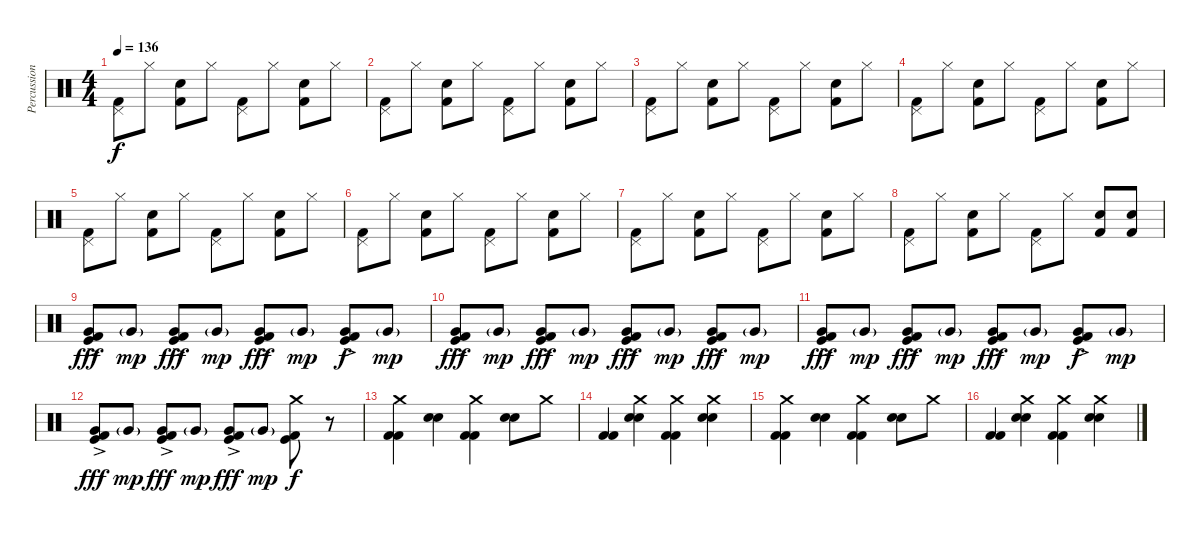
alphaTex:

\track ("Percussion" "Percussion") {instrument percussion}
\staff {score}
\articulation defaults
\ts (4 4)
\tempo 136
\clef neutral
\ks c
("Pedal Hi-Hat (hit)" "Kick (hit) 2").8{dy f} "Hi-Hat (closed)".8 ("Snare (hit) 2" "Kick (hit) 2").8 "Hi-Hat (closed)".8 ("Pedal Hi-Hat (hit)" "Kick (hit) 2").8 "Hi-Hat (closed)".8 ("Snare (hit) 2" "Kick (hit) 2").8 "Hi-Hat (closed)".8 |
("Pedal Hi-Hat (hit)" "Kick (hit) 2").8 "Hi-Hat (closed)".8 ("Snare (hit) 2" "Kick (hit) 2").8 "Hi-Hat (closed)".8 ("Pedal Hi-Hat (hit)" "Kick (hit) 2").8 "Hi-Hat (closed)".8 ("Snare (hit) 2" "Kick (hit) 2").8 "Hi-Hat (closed)".8 |
("Pedal Hi-Hat (hit)" "Kick (hit) 2").8 "Hi-Hat (closed)".8 ("Snare (hit) 2" "Kick (hit) 2").8 "Hi-Hat (closed)".8 ("Pedal Hi-Hat (hit)" "Kick (hit) 2").8 "Hi-Hat (closed)".8 ("Snare (hit) 2" "Kick (hit) 2").8 "Hi-Hat (closed)".8 |
("Pedal Hi-Hat (hit)" "Kick (hit) 2").8 "Hi-Hat (closed)".8 ("Snare (hit) 2" "Kick (hit) 2").8 "Hi-Hat (closed)".8 ("Pedal Hi-Hat (hit)" "Kick (hit) 2").8 "Hi-Hat (closed)".8 ("Snare (hit) 2" "Kick (hit) 2").8 "Hi-Hat (closed)".8 |
("Pedal Hi-Hat (hit)" "Kick (hit) 2").8 "Hi-Hat (closed)".8 ("Snare (hit) 2" "Kick (hit) 2").8 "Hi-Hat (closed)".8 ("Pedal Hi-Hat (hit)" "Kick (hit) 2").8 "Hi-Hat (closed)".8 ("Snare (hit) 2" "Kick (hit) 2").8 "Hi-Hat (closed)".8 |
("Pedal Hi-Hat (hit)" "Kick (hit) 2").8 "Hi-Hat (closed)".8 ("Snare (hit) 2" "Kick (hit) 2").8 "Hi-Hat (closed)".8 ("Pedal Hi-Hat (hit)" "Kick (hit) 2").8 "Hi-Hat (closed)".8 ("Snare (hit) 2" "Kick (hit) 2").8 "Hi-Hat (closed)".8 |
("Pedal Hi-Hat (hit)" "Kick (hit) 2").8 "Hi-Hat (closed)".8 ("Snare (hit) 2" "Kick (hit) 2").8 "Hi-Hat (closed)".8 ("Pedal Hi-Hat (hit)" "Kick (hit) 2").8 "Hi-Hat (closed)".8 ("Snare (hit) 2" "Kick (hit) 2").8 "Hi-Hat (closed)".8 |
("Pedal Hi-Hat (hit)" "Kick (hit) 2").8 "Hi-Hat (closed)".8 ("Snare (hit) 2" "Kick (hit) 2").8 "Hi-Hat (closed)".8 ("Pedal Hi-Hat (hit)" "Kick (hit) 2").8 "Hi-Hat (closed)".8 ("Snare (hit) 2" "Kick (hit) 2").8 ("Snare (hit) 2" "Kick (hit) 2").8 |
("Very Low Tom (hit)"{ac} "Kick (hit)" "Kick (hit) 2").8{dy fff} "Very Low Tom (hit)"{g}.8{dy mp} ("Very Low Tom (hit)"{ac} "Kick (hit)" "Kick (hit) 2").8{dy fff} "Very Low Tom (hit)"{g}.8{dy mp} ("Very Low Tom (hit)"{ac} "Kick (hit)" "Kick (hit) 2").8{dy fff} "Very Low Tom (hit)"{g}.8{dy mp} ("Very Low Tom (hit)"{ac} "Kick (hit)" "Kick (hit) 2").8{dy f} "Very Low Tom (hit)"{g}.8{dy mp} |
("Very Low Tom (hit)"{ac} "Kick (hit)" "Kick (hit) 2").8{dy fff} "Very Low Tom (hit)"{g}.8{dy mp} ("Very Low Tom (hit)"{ac} "Kick (hit)" "Kick (hit) 2").8{dy fff} "Very Low Tom (hit)"{g}.8{dy mp} ("Very Low Tom (hit)"{ac} "Kick (hit)" "Kick (hit) 2").8{dy fff} "Very Low Tom (hit)"{g}.8{dy mp} ("Very Low Tom (hit)"{ac} "Kick (hit)" "Kick (hit) 2").8{dy fff} "Very Low Tom (hit)"{g}.8{dy mp} |
("Very Low Tom (hit)"{ac} "Kick (hit)" "Kick (hit) 2").8{dy fff} "Very Low Tom (hit)"{g}.8{dy mp} ("Very Low Tom (hit)"{ac} "Kick (hit)" "Kick (hit) 2").8{dy fff} "Very Low Tom (hit)"{g}.8{dy mp} ("Very Low Tom (hit)"{ac} "Kick (hit)" "Kick (hit) 2").8{dy fff} "Very Low Tom (hit)"{g}.8{dy mp} ("Very Low Tom (hit)"{ac} "Kick (hit)" "Kick (hit) 2").8{dy f} "Very Low Tom (hit)"{g}.8{dy mp} |
("Very Low Tom (hit)"{ac} "Kick (hit)" "Kick (hit) 2").8{dy fff} "Very Low Tom (hit)"{g}.8{dy mp} ("Very Low Tom (hit)"{ac} "Kick (hit)" "Kick (hit) 2").8{dy fff} "Very Low Tom (hit)"{g}.8{dy mp} ("Very Low Tom (hit)"{ac} "Kick (hit)" "Kick (hit) 2").8{dy fff} "Very Low Tom (hit)"{g}.8{dy mp} ("Crash medium (hit)" "Kick (hit)" "Kick (hit) 2").8{dy f} r.8 |
("Crash medium (hit)" "Kick (hit) 2" "Kick (hit) 2").4 ("Snare (hit) 2" "Snare (hit) 2").4 ("Crash medium (hit)" "Kick (hit) 2" "Kick (hit) 2").4 ("Snare (hit) 2" "Snare (hit) 2").8 "Crash medium (hit)".8 |
("Kick (hit) 2" "Kick (hit) 2").4 ("Crash medium (hit)" "Snare (hit) 2" "Snare (hit) 2").4 ("Crash medium (hit)" "Kick (hit) 2" "Kick (hit) 2").4 ("Crash medium (hit)" "Snare (hit) 2" "Snare (hit) 2").4 |
("Crash medium (hit)" "Kick (hit) 2" "Kick (hit) 2").4 ("Snare (hit) 2" "Snare (hit) 2").4 ("Crash medium (hit)" "Kick (hit) 2" "Kick (hit) 2").4 ("Snare (hit) 2" "Snare (hit) 2").8 "Crash medium (hit)".8 |
("Kick (hit) 2" "Kick (hit) 2").4 ("Crash medium (hit)" "Snare (hit) 2" "Snare (hit) 2").4 ("Crash medium (hit)" "Kick (hit) 2" "Kick (hit) 2").4 ("Crash medium (hit)" "Snare (hit) 2" "Snare (hit) 2").4
